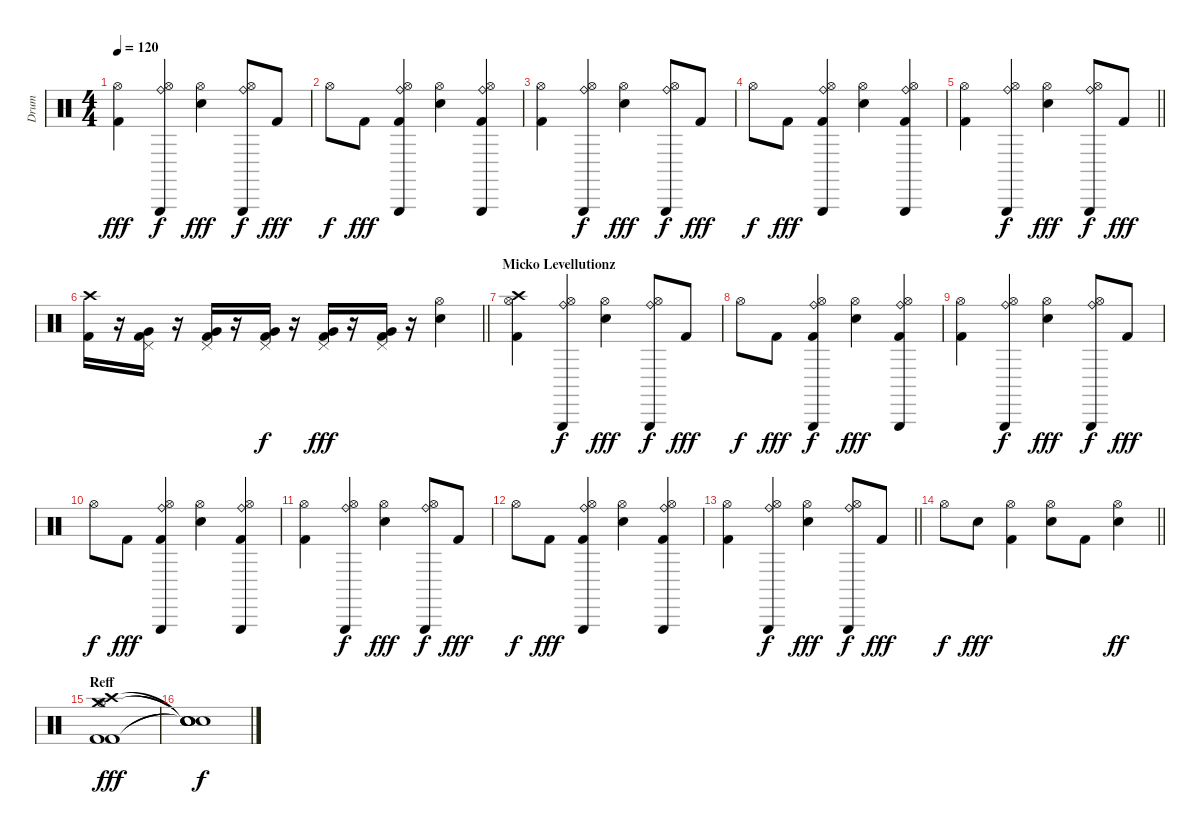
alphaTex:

\track ("Drum" "Drum") {instrument percussion}
\staff {score}
\articulation defaults
\ts (4 4)
\tempo 120
\clef neutral
\ks c
("Kick (hit) 2" "Hi-Hat (open)").4{dy fff} ("Hi-Hat (open)" "Ride (bell)" "Triangle (hit)").4{dy f} ("Electric Snare (hit)" "Hi-Hat (open)").4{dy fff} ("Hi-Hat (open)" "Ride (bell)" "Triangle (hit)").8{dy f} "Kick (hit) 2".8{dy fff} |
"Hi-Hat (open)".8{dy f} "Kick (hit) 2".8{dy fff} ("Kick (hit) 2" "Hi-Hat (open)" "Ride (bell)" "Triangle (hit)").4 ("Electric Snare (hit)" "Hi-Hat (open)").4 ("Kick (hit) 2" "Hi-Hat (open)" "Ride (bell)" "Triangle (hit)").4 |
("Kick (hit) 2" "Hi-Hat (open)").4 ("Hi-Hat (open)" "Ride (bell)" "Triangle (hit)").4{dy f} ("Electric Snare (hit)" "Hi-Hat (open)").4{dy fff} ("Hi-Hat (open)" "Ride (bell)" "Triangle (hit)").8{dy f} "Kick (hit) 2".8{dy fff} |
"Hi-Hat (open)".8{dy f} "Kick (hit) 2".8{dy fff} ("Kick (hit) 2" "Hi-Hat (open)" "Ride (bell)" "Triangle (hit)").4 ("Electric Snare (hit)" "Hi-Hat (open)").4 ("Kick (hit) 2" "Hi-Hat (open)" "Ride (bell)" "Triangle (hit)").4 |
\barLineRight lightlight
("Kick (hit) 2" "Hi-Hat (open)").4 ("Hi-Hat (open)" "Ride (bell)" "Triangle (hit)").4{dy f} ("Electric Snare (hit)" "Hi-Hat (open)").4{dy fff} ("Hi-Hat (open)" "Ride (bell)" "Triangle (hit)").8{dy f} "Kick (hit) 2".8{dy fff} |
\barLineRight lightlight
("Kick (hit) 2" "Crash high (hit)").16 r.16 ("Very Low Tom (hit)" "Pedal Hi-Hat (hit)" "Kick (hit) 2").16 r.16 ("Kick (hit) 2" "Pedal Hi-Hat (hit)" "Very Low Tom (hit)").16 r.16 ("Kick (hit) 2" "Pedal Hi-Hat (hit)" "Very Low Tom (hit)").16{dy f} r.16 ("Very Low Tom (hit)" "Pedal Hi-Hat (hit)" "Kick (hit) 2").16{dy fff} r.16 ("Kick (hit) 2" "Pedal Hi-Hat (hit)" "Very Low Tom (hit)").16 r.16 ("Electric Snare (hit)" "Hi-Hat (open)").4 |
\section ("" "Micko Levellutionz")
("Kick (hit) 2" "Crash high (hit)" "Hi-Hat (open)").4 ("Hi-Hat (open)" "Ride (bell)" "Triangle (hit)").4{dy f} ("Electric Snare (hit)" "Hi-Hat (open)").4{dy fff} ("Hi-Hat (open)" "Ride (bell)" "Triangle (hit)").8{dy f} "Kick (hit) 2".8{dy fff} |
"Hi-Hat (open)".8{dy f} "Kick (hit) 2".8{dy fff} ("Kick (hit) 2" "Hi-Hat (open)" "Ride (bell)" "Triangle (hit)").4{dy f} ("Electric Snare (hit)" "Hi-Hat (open)").4{dy fff} ("Kick (hit) 2" "Hi-Hat (open)" "Ride (bell)" "Triangle (hit)").4 |
("Kick (hit) 2" "Hi-Hat (open)").4 ("Hi-Hat (open)" "Ride (bell)" "Triangle (hit)").4{dy f} ("Electric Snare (hit)" "Hi-Hat (open)").4{dy fff} ("Hi-Hat (open)" "Ride (bell)" "Triangle (hit)").8{dy f} "Kick (hit) 2".8{dy fff} |
"Hi-Hat (open)".8{dy f} "Kick (hit) 2".8{dy fff} ("Kick (hit) 2" "Hi-Hat (open)" "Ride (bell)" "Triangle (hit)").4 ("Electric Snare (hit)" "Hi-Hat (open)").4 ("Kick (hit) 2" "Hi-Hat (open)" "Ride (bell)" "Triangle (hit)").4 |
("Kick (hit) 2" "Hi-Hat (open)").4 ("Hi-Hat (open)" "Ride (bell)" "Triangle (hit)").4{dy f} ("Electric Snare (hit)" "Hi-Hat (open)").4{dy fff} ("Hi-Hat (open)" "Ride (bell)" "Triangle (hit)").8{dy f} "Kick (hit) 2".8{dy fff} |
"Hi-Hat (open)".8{dy f} "Kick (hit) 2".8{dy fff} ("Kick (hit) 2" "Hi-Hat (open)" "Ride (bell)" "Triangle (hit)").4 ("Electric Snare (hit)" "Hi-Hat (open)").4 ("Kick (hit) 2" "Hi-Hat (open)" "Ride (bell)" "Triangle (hit)").4 |
\barLineRight lightlight
("Kick (hit) 2" "Hi-Hat (open)").4 ("Hi-Hat (open)" "Ride (bell)" "Triangle (hit)").4{dy f} ("Electric Snare (hit)" "Hi-Hat (open)").4{dy fff} ("Hi-Hat (open)" "Ride (bell)" "Triangle (hit)").8{dy f} "Kick (hit) 2".8{dy fff} |
\barLineRight lightlight "Hi-Hat (open)".8{dy f} "Electric Snare (hit)".8{dy fff}
("Kick (hit) 2" "Hi-Hat (open)").4 ("Electric Snare (hit)" "Hi-Hat (open)").8 "Kick (hit) 2".8 ("Electric Snare (hit)" "Hi-Hat (open)").4{dy ff} |
\section ("" "Reff")
("Crash medium (hit)" "Crash high (hit)" "Hi-Hat (open)" "Kick (hit) 2" "Kick (hit) 2").1{dy fff} |
("Snare (hit)"{t} "Snare (hit)"{t} "Snare (hit)"{t} "Snare (hit)"{t} "Snare (hit)"{t}).1{dy f}
